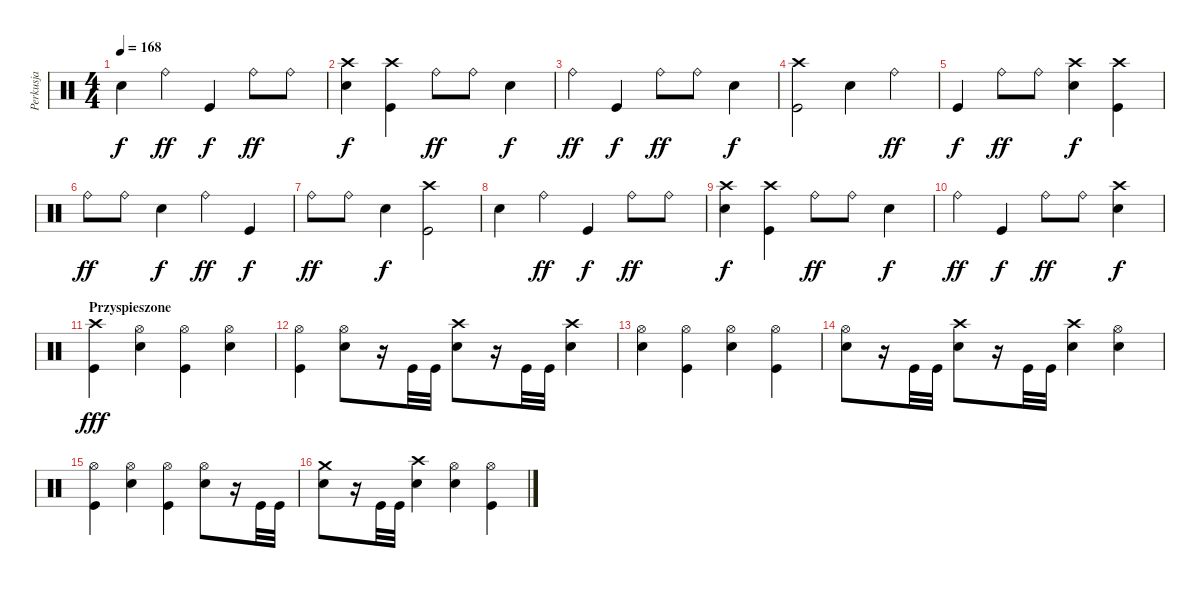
\track ("Perkusja" "Perkusja") {instrument percussion}
\staff {score}
\articulation defaults
\ts (4 4)
\tempo 168
\clef neutral
\ks c "Snare (hit) 2".4{dy f} "Ride (bell)".4{dy ff} "Kick (hit)".4{dy f} "Ride (bell)".8{dy ff} "Ride (bell)".8
|
("Crash high (hit)" "Snare (hit) 2").4{dy f} ("Crash high (hit)" "Kick (hit)").4 "Ride (bell)".8{dy ff} "Ride (bell)".8 "Snare (hit) 2".4{dy f} |
"Ride (bell)".4{dy ff} "Kick (hit)".4{dy f} "Ride (bell)".8{dy ff} "Ride (bell)".8 "Snare (hit) 2".4{dy f} |
("Crash high (hit)" "Kick (hit)").2 "Snare (hit) 2".4 "Ride (bell)".4{dy ff} |
"Kick (hit)".4{dy f} "Ride (bell)".8{dy ff} "Ride (bell)".8 ("Crash high (hit)" "Snare (hit) 2").4{dy f} ("Crash high (hit)" "Kick (hit)").4 |
"Ride (bell)".8{dy ff} "Ride (bell)".8 "Snare (hit) 2".4{dy f} "Ride (bell)".4{dy ff} "Kick (hit)".4{dy f} |
"Ride (bell)".8{dy ff} "Ride (bell)".8 "Snare (hit) 2".4{dy f} ("Crash high (hit)" "Kick (hit)").2 |
"Snare (hit) 2".4 "Ride (bell)".4{dy ff} "Kick (hit)".4{dy f} "Ride (bell)".8{dy ff} "Ride (bell)".8 |
("Crash high (hit)" "Snare (hit) 2").4{dy f} ("Crash high (hit)" "Kick (hit)").4 "Ride (bell)".8{dy ff} "Ride (bell)".8 "Snare (hit) 2".4{dy f} |
"Ride (bell)".4{dy ff} "Kick (hit)".4{dy f} "Ride (bell)".8{dy ff} "Ride (bell)".8 ("Crash high (hit)" "Snare (hit) 2").4{dy f} |
\section ("" "Przyspieszone")
("Crash high (hit)" "Kick (hit)").4{dy fff} ("Hi-Hat (open)" "Snare (hit) 2").4 ("Hi-Hat (open)" "Kick (hit)").4 ("Hi-Hat (open)" "Snare (hit) 2").4 |
("Hi-Hat (open)" "Kick (hit)").4 ("Hi-Hat (open)" "Snare (hit) 2").8 r.16 "Kick (hit)".32 "Kick (hit)".32 ("Crash high (hit)" "Snare (hit) 2").8 r.16 "Kick (hit)".32 "Kick (hit)".32 ("Crash high (hit)" "Snare (hit) 2").4 |
("Hi-Hat (open)" "Snare (hit) 2").4 ("Hi-Hat (open)" "Kick (hit)").4 ("Hi-Hat (open)" "Snare (hit) 2").4 ("Hi-Hat (open)" "Kick (hit)").4 |
("Hi-Hat (open)" "Snare (hit) 2").8 r.16 "Kick (hit)".32 "Kick (hit)".32 ("Crash high (hit)" "Snare (hit) 2").8 r.16 "Kick (hit)".32 "Kick (hit)".32 ("Crash high (hit)" "Snare (hit) 2").4 ("Hi-Hat (open)" "Snare (hit) 2").4 |
("Hi-Hat (open)" "Kick (hit)").4 ("Hi-Hat (open)" "Snare (hit) 2").4 ("Hi-Hat (open)" "Kick (hit)").4 ("Hi-Hat (open)" "Snare (hit) 2").8 r.16 "Kick (hit)".32 "Kick (hit)".32 |
("Crash medium (hit)" "Snare (hit) 2").8 r.16 "Kick (hit)".32 "Kick (hit)".32 ("Crash high (hit)" "Snare (hit) 2").4 ("Hi-Hat (open)" "Snare (hit) 2").4 ("Hi-Hat (open)" "Kick (hit)").4
